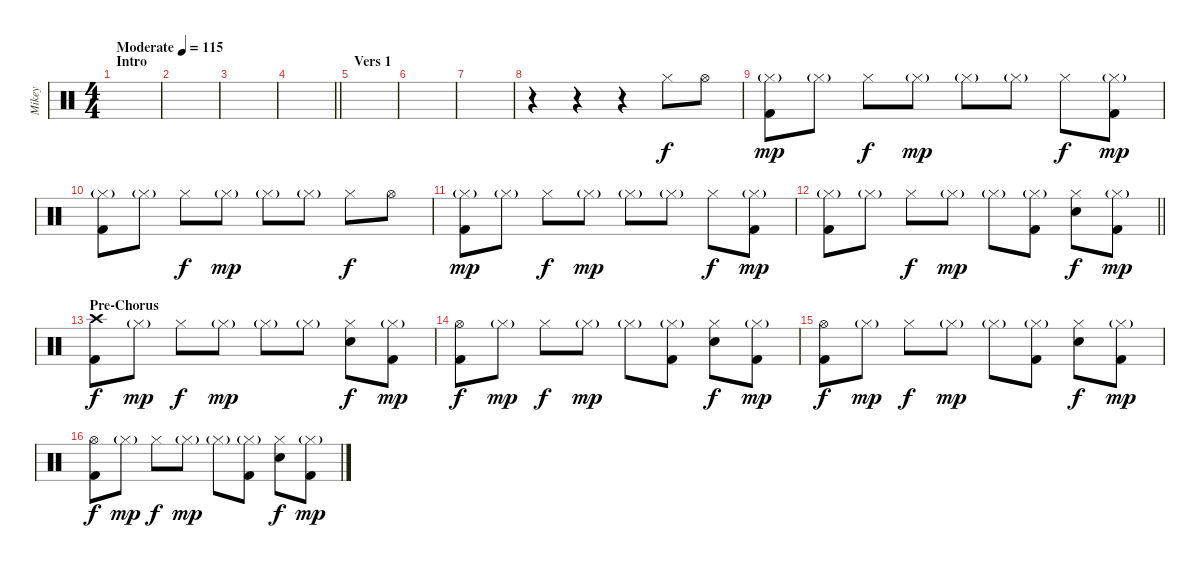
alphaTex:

\track ("Mikey" "Mikey") {instrument percussion}
\staff {score}
\articulation defaults
\ts (4 4)
\section ("" "Intro")
\tempo (115 "Moderate")
\clef neutral
\ks c
|
|
|
\barLineRight lightlight
|
\section ("" "Vers 1")
|
|
|
r.4 r.4 r.4 "Hi-Hat (closed)".8 "Hi-Hat (open)".8 |
("Hi-Hat (closed)"{g} "Kick (hit) 2").8{dy mp} "Hi-Hat (closed)"{g}.8 "Hi-Hat (closed)".8{dy f} "Hi-Hat (closed)"{g}.8{dy mp} "Hi-Hat (closed)"{g}.8 "Hi-Hat (closed)"{g}.8 "Hi-Hat (closed)".8{dy f} ("Hi-Hat (closed)"{g} "Kick (hit) 2").8{dy mp} |
("Hi-Hat (closed)"{g} "Kick (hit) 2").8 "Hi-Hat (closed)"{g}.8 "Hi-Hat (closed)".8{dy f} "Hi-Hat (closed)"{g}.8{dy mp} "Hi-Hat (closed)"{g}.8 "Hi-Hat (closed)"{g}.8 "Hi-Hat (closed)".8{dy f} "Hi-Hat (open)".8 |
("Hi-Hat (closed)"{g} "Kick (hit) 2").8{dy mp} "Hi-Hat (closed)"{g}.8 "Hi-Hat (closed)".8{dy f} "Hi-Hat (closed)"{g}.8{dy mp} "Hi-Hat (closed)"{g}.8 "Hi-Hat (closed)"{g}.8 "Hi-Hat (closed)".8{dy f} ("Hi-Hat (closed)"{g} "Kick (hit) 2").8{dy mp} |
\barLineRight lightlight
("Hi-Hat (closed)"{g} "Kick (hit) 2").8 "Hi-Hat (closed)"{g}.8 "Hi-Hat (closed)".8{dy f} "Hi-Hat (closed)"{g}.8{dy mp} "Hi-Hat (closed)"{g}.8 ("Hi-Hat (closed)"{g} "Kick (hit) 2").8 ("Hi-Hat (closed)" "Snare (hit) 2").8{dy f} ("Hi-Hat (closed)"{g} "Kick (hit) 2").8{dy mp} |
\section ("" "Pre-Chorus")
("Crash high (hit)" "Kick (hit) 2").8{dy f} "Hi-Hat (closed)"{g}.8{dy mp} "Hi-Hat (closed)".8{dy f} "Hi-Hat (closed)"{g}.8{dy mp} "Hi-Hat (closed)"{g}.8 "Hi-Hat (closed)"{g}.8 ("Hi-Hat (closed)" "Snare (hit) 2").8{dy f} ("Hi-Hat (closed)"{g} "Kick (hit) 2").8{dy mp} |
("Hi-Hat (open)" "Kick (hit) 2").8{dy f} "Hi-Hat (closed)"{g}.8{dy mp} "Hi-Hat (closed)".8{dy f} "Hi-Hat (closed)"{g}.8{dy mp} "Hi-Hat (closed)"{g}.8 ("Hi-Hat (closed)"{g} "Kick (hit) 2").8 ("Hi-Hat (closed)" "Snare (hit) 2").8{dy f} ("Hi-Hat (closed)"{g} "Kick (hit) 2").8{dy mp} |
("Hi-Hat (open)" "Kick (hit) 2").8{dy f} "Hi-Hat (closed)"{g}.8{dy mp} "Hi-Hat (closed)".8{dy f} "Hi-Hat (closed)"{g}.8{dy mp} "Hi-Hat (closed)"{g}.8 ("Hi-Hat (closed)"{g} "Kick (hit) 2").8 ("Hi-Hat (closed)" "Snare (hit) 2").8{dy f} ("Hi-Hat (closed)"{g} "Kick (hit) 2").8{dy mp} |
("Hi-Hat (open)" "Kick (hit) 2").8{dy f} "Hi-Hat (closed)"{g}.8{dy mp} "Hi-Hat (closed)".8{dy f} "Hi-Hat (closed)"{g}.8{dy mp} "Hi-Hat (closed)"{g}.8 ("Hi-Hat (closed)"{g} "Kick (hit) 2").8 ("Hi-Hat (closed)" "Snare (hit) 2").8{dy f} ("Hi-Hat (closed)"{g} "Kick (hit) 2").8{dy mp}
